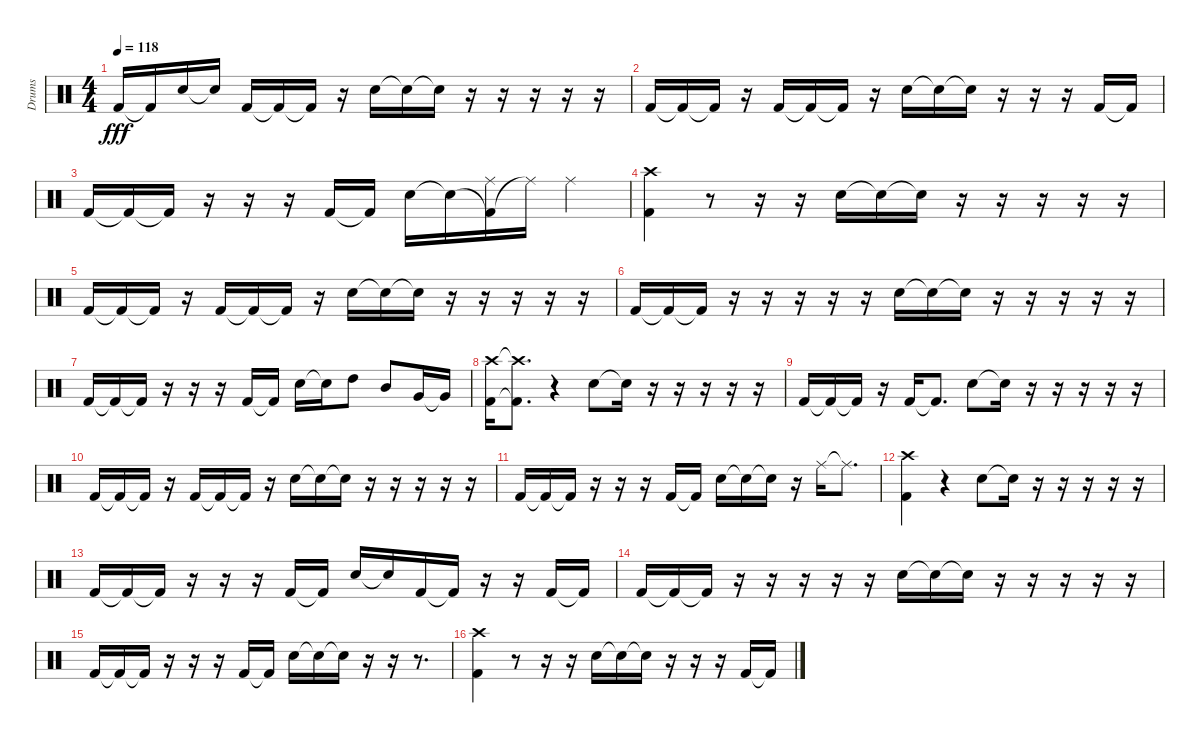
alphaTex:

\track ("Drums" "Drums") {instrument percussion}
\staff {score}
\articulation defaults
\ts (4 4)
\tempo 118
\clef neutral
\ks c "Kick (hit) 2".16{dy fff} "Kick (hit) 2"{t}.16 "Snare (hit) 2".16 "Snare (hit) 2"{t}.16 "Kick (hit) 2".16 "Kick (hit) 2"{t}.16 "Kick (hit) 2"{t}.16
r.16 "Snare (hit) 2".16 "Snare (hit) 2"{t}.16 "Snare (hit) 2"{t}.16 r.16 r.16 r.16 r.16 r.16 |
"Kick (hit) 2".16 "Kick (hit) 2"{t}.16 "Kick (hit) 2"{t}.16 r.16 "Kick (hit) 2".16 "Kick (hit) 2"{t}.16 "Kick (hit) 2"{t}.16 r.16 "Snare (hit) 2".16 "Snare (hit) 2"{t}.16 "Snare (hit) 2"{t}.16 r.16 r.16 r.16 "Kick (hit) 2".16 "Kick (hit) 2"{t}.16 |
"Kick (hit) 2".16 "Kick (hit) 2"{t}.16 "Kick (hit) 2"{t}.16 r.16 r.16 r.16 "Kick (hit) 2".16 "Kick (hit) 2"{t}.16 "Snare (hit) 2".16 "Snare (hit) 2"{t}.16 ("Kick (hit) 2"{t} "Ride (middle)").16 "Ride (middle)"{t}.16 "Ride (middle)".4 |
("Kick (hit) 2" "Crash high (hit)").4 r.8 r.16 r.16 "Snare (hit) 2".16 "Snare (hit) 2"{t}.16 "Snare (hit) 2"{t}.16 r.16 r.16 r.16 r.16 r.16 |
"Kick (hit) 2".16 "Kick (hit) 2"{t}.16 "Kick (hit) 2"{t}.16 r.16 "Kick (hit) 2".16 "Kick (hit) 2"{t}.16 "Kick (hit) 2"{t}.16 r.16 "Snare (hit) 2".16 "Snare (hit) 2"{t}.16 "Snare (hit) 2"{t}.16 r.16 r.16 r.16 r.16 r.16 |
"Kick (hit) 2".16 "Kick (hit) 2"{t}.16 "Kick (hit) 2"{t}.16 r.16 r.16 r.16 r.16 r.16 "Snare (hit) 2".16 "Snare (hit) 2"{t}.16 "Snare (hit) 2"{t}.16 r.16 r.16 r.16 r.16 r.16 |
"Kick (hit) 2".16 "Kick (hit) 2"{t}.16 "Kick (hit) 2"{t}.16 r.16 r.16 r.16 "Kick (hit) 2".16 "Kick (hit) 2"{t}.16 "Snare (hit) 2".16 "Snare (hit) 2"{t}.16 "High Tom (hit)".8 "Mid Tom (hit)".8 "Very Low Tom (hit)".16 "Very Low Tom (hit)"{t}.16 |
("Kick (hit) 2" "Crash high (hit)").16 ("Kick (hit) 2"{t} "Crash high (hit)"{t}).8{d} r.4 "Snare (hit) 2".8 "Snare (hit) 2"{t}.16 r.16 r.16 r.16 r.16 r.16 |
"Kick (hit) 2".16 "Kick (hit) 2"{t}.16 "Kick (hit) 2"{t}.16 r.16 "Kick (hit) 2".16 "Kick (hit) 2"{t}.8{d} "Snare (hit) 2".8 "Snare (hit) 2"{t}.16 r.16 r.16 r.16 r.16 r.16 |
"Kick (hit) 2".16 "Kick (hit) 2"{t}.16 "Kick (hit) 2"{t}.16 r.16 "Kick (hit) 2".16 "Kick (hit) 2"{t}.16 "Kick (hit) 2"{t}.16 r.16 "Snare (hit) 2".16 "Snare (hit) 2"{t}.16 "Snare (hit) 2"{t}.16 r.16 r.16 r.16 r.16 r.16 |
"Kick (hit) 2".16 "Kick (hit) 2"{t}.16 "Kick (hit) 2"{t}.16 r.16 r.16 r.16 "Kick (hit) 2".16 "Kick (hit) 2"{t}.16 "Snare (hit) 2".16 "Snare (hit) 2"{t}.16 "Snare (hit) 2"{t}.16 r.16 "Ride (middle)".16 "Ride (middle)"{t}.8{d} |
("Kick (hit) 2" "Crash high (hit)").4 r.4 "Snare (hit) 2".8 "Snare (hit) 2"{t}.16 r.16 r.16 r.16 r.16 r.16 |
"Kick (hit) 2".16 "Kick (hit) 2"{t}.16 "Kick (hit) 2"{t}.16 r.16 r.16 r.16 "Kick (hit) 2".16 "Kick (hit) 2"{t}.16 "Snare (hit) 2".16 "Snare (hit) 2"{t}.16 "Kick (hit) 2".16 "Kick (hit) 2"{t}.16 r.16 r.16 "Kick (hit) 2".16 "Kick (hit) 2"{t}.16 |
"Kick (hit) 2".16 "Kick (hit) 2"{t}.16 "Kick (hit) 2"{t}.16 r.16 r.16 r.16 r.16 r.16 "Snare (hit) 2".16 "Snare (hit) 2"{t}.16 "Snare (hit) 2"{t}.16 r.16 r.16 r.16 r.16 r.16 |
"Kick (hit) 2".16 "Kick (hit) 2"{t}.16 "Kick (hit) 2"{t}.16 r.16 r.16 r.16 "Kick (hit) 2".16 "Kick (hit) 2"{t}.16 "Snare (hit) 2".16 "Snare (hit) 2"{t}.16 "Snare (hit) 2"{t}.16 r.16 r.16 r.8{d} |
("Kick (hit) 2" "Crash high (hit)").4 r.8 r.16 r.16 "Snare (hit) 2".16 "Snare (hit) 2"{t}.16 "Snare (hit) 2"{t}.16 r.16 r.16 r.16 "Kick (hit) 2".16 "Kick (hit) 2"{t}.16
